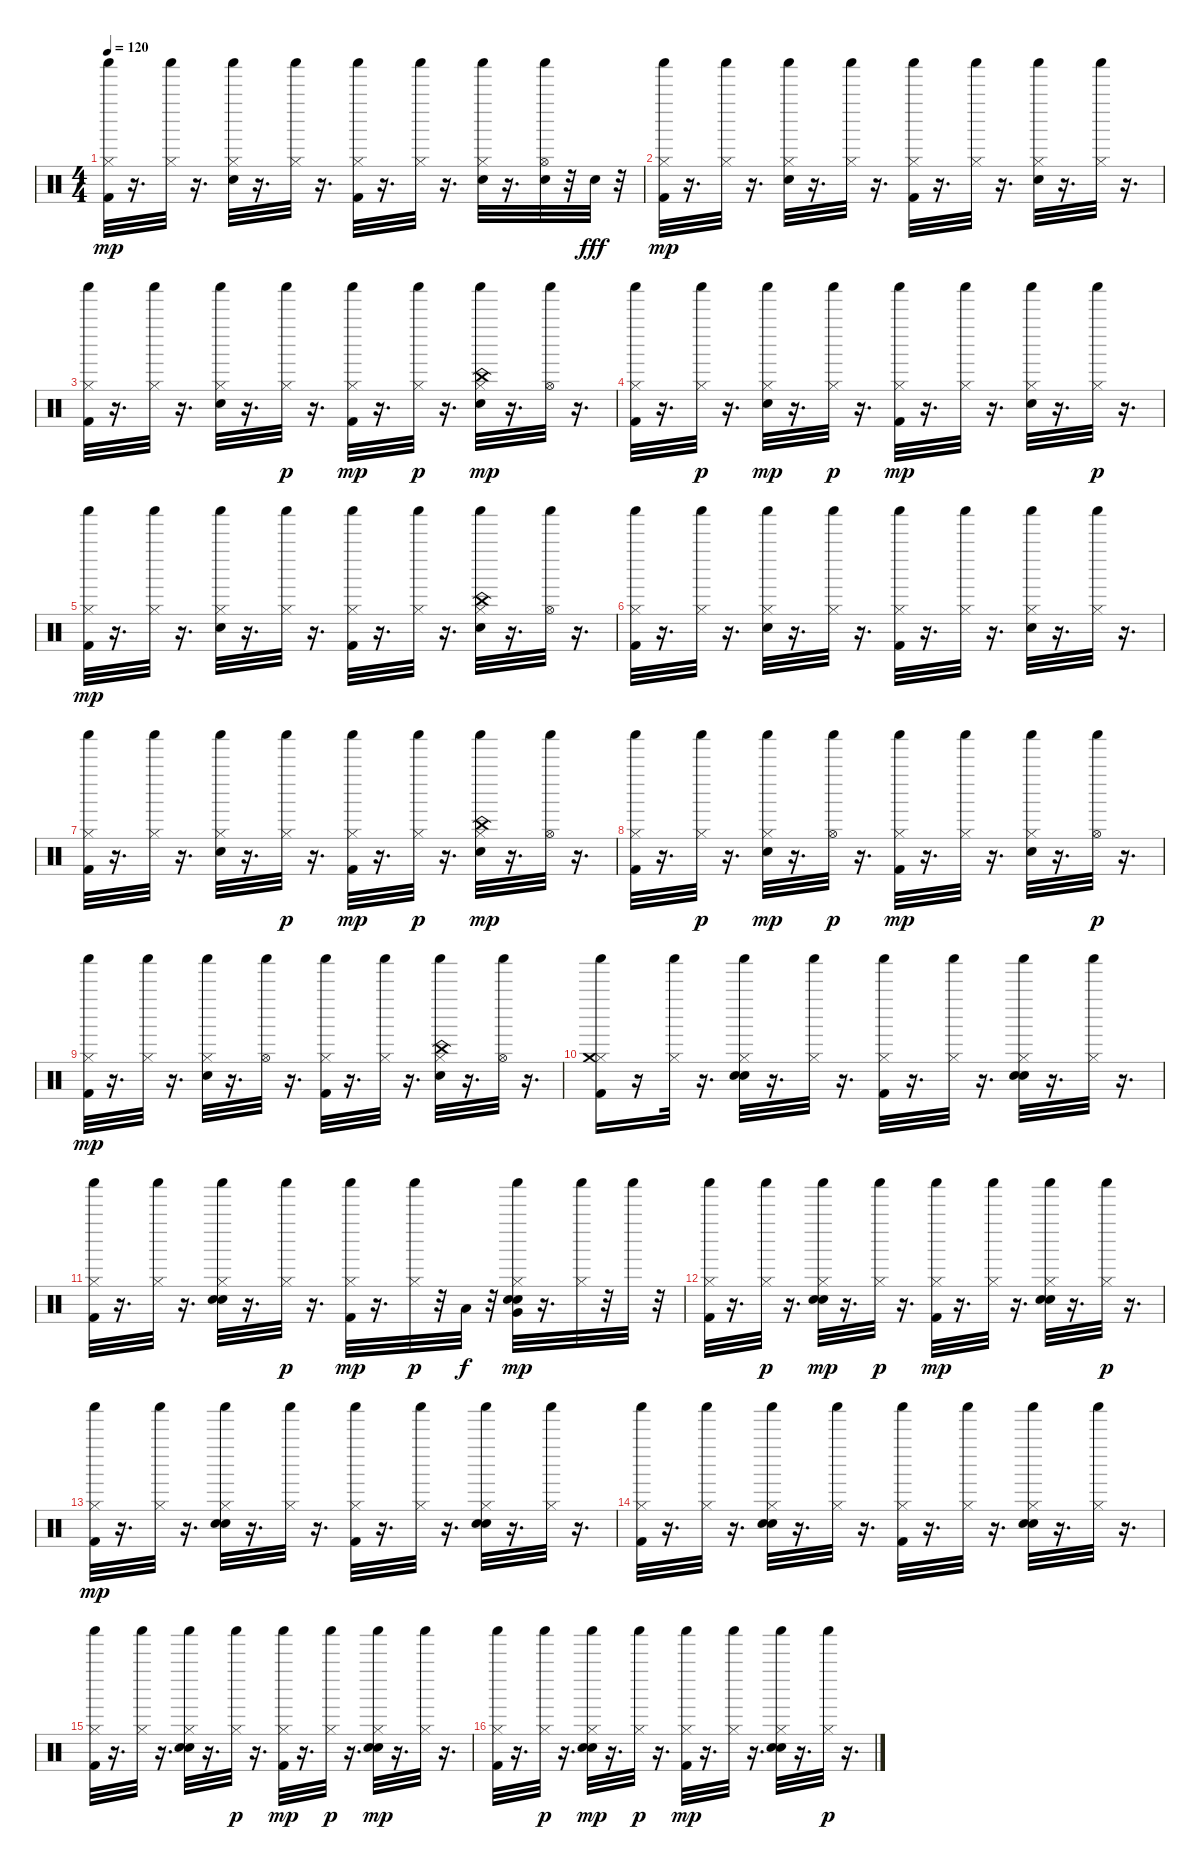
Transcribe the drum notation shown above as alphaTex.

\track "" {instrument percussion}
\staff {score}
\articulation defaults
\ts (4 4)
\tempo 120
\clef neutral
\ks c
("Kick (hit) 2" "Hi-Hat (closed)" "Shaker (hit)").32{dy mp} r.16{d} ("Hi-Hat (closed)" "Shaker (hit)").32 r.16{d} ("Electric Snare (hit)" "Hi-Hat (closed)" "Shaker (hit)").32 r.16{d} ("Hi-Hat (closed)" "Shaker (hit)").32 r.16{d} ("Kick (hit) 2" "Hi-Hat (closed)" "Shaker (hit)").32 r.16{d} ("Hi-Hat (closed)" "Shaker (hit)").32 r.16{d} ("Electric Snare (hit)" "Hi-Hat (closed)" "Shaker (hit)").32 r.16{d} ("Electric Snare (hit)" "Hi-Hat (open)" "Shaker (hit)").32 r.32 "Electric Snare (hit)".32{dy fff} r.32 |
("Kick (hit) 2" "Hi-Hat (closed)" "Shaker (hit)").32{dy mp} r.16{d} ("Hi-Hat (closed)" "Shaker (hit)").32 r.16{d} ("Electric Snare (hit)" "Hi-Hat (closed)" "Shaker (hit)").32 r.16{d} ("Hi-Hat (closed)" "Shaker (hit)").32 r.16{d} ("Kick (hit) 2" "Hi-Hat (closed)" "Shaker (hit)").32 r.16{d} ("Hi-Hat (closed)" "Shaker (hit)").32 r.16{d} ("Electric Snare (hit)" "Hi-Hat (closed)" "Shaker (hit)").32 r.16{d} ("Hi-Hat (closed)" "Shaker (hit)").32 r.16{d} |
("Kick (hit) 2" "Hi-Hat (closed)" "Shaker (hit)").32 r.16{d} ("Hi-Hat (closed)" "Shaker (hit)").32 r.16{d} ("Electric Snare (hit)" "Hi-Hat (closed)" "Shaker (hit)").32 r.16{d} ("Hi-Hat (closed)" "Shaker (hit)").32{dy p} r.16{d} ("Kick (hit) 2" "Hi-Hat (closed)" "Shaker (hit)").32{dy mp} r.16{d} ("Hi-Hat (closed)" "Shaker (hit)").32{dy p} r.16{d} ("Electric Snare (hit)" "Hi-Hat (closed)" "China (hit)" "Shaker (hit)").32{dy mp} r.16{d} ("Hi-Hat (open)" "Shaker (hit)").32 r.16{d} |
("Kick (hit) 2" "Hi-Hat (closed)" "Shaker (hit)").32 r.16{d} ("Hi-Hat (closed)" "Shaker (hit)").32{dy p} r.16{d} ("Electric Snare (hit)" "Hi-Hat (closed)" "Shaker (hit)").32{dy mp} r.16{d} ("Hi-Hat (closed)" "Shaker (hit)").32{dy p} r.16{d} ("Kick (hit) 2" "Hi-Hat (closed)" "Shaker (hit)").32{dy mp} r.16{d} ("Hi-Hat (closed)" "Shaker (hit)").32 r.16{d} ("Electric Snare (hit)" "Hi-Hat (closed)" "Shaker (hit)").32 r.16{d} ("Hi-Hat (closed)" "Shaker (hit)").32{dy p} r.16{d} |
("Kick (hit) 2" "Hi-Hat (closed)" "Shaker (hit)").32{dy mp} r.16{d} ("Hi-Hat (closed)" "Shaker (hit)").32 r.16{d} ("Electric Snare (hit)" "Hi-Hat (closed)" "Shaker (hit)").32 r.16{d} ("Hi-Hat (closed)" "Shaker (hit)").32 r.16{d} ("Kick (hit) 2" "Hi-Hat (closed)" "Shaker (hit)").32 r.16{d} ("Hi-Hat (closed)" "Shaker (hit)").32 r.16{d} ("Electric Snare (hit)" "Hi-Hat (closed)" "China (hit)" "Shaker (hit)").32 r.16{d} ("Hi-Hat (open)" "Shaker (hit)").32 r.16{d} |
("Kick (hit) 2" "Hi-Hat (closed)" "Shaker (hit)").32 r.16{d} ("Hi-Hat (closed)" "Shaker (hit)").32 r.16{d} ("Electric Snare (hit)" "Hi-Hat (closed)" "Shaker (hit)").32 r.16{d} ("Hi-Hat (closed)" "Shaker (hit)").32 r.16{d} ("Kick (hit) 2" "Hi-Hat (closed)" "Shaker (hit)").32 r.16{d} ("Hi-Hat (closed)" "Shaker (hit)").32 r.16{d} ("Electric Snare (hit)" "Hi-Hat (closed)" "Shaker (hit)").32 r.16{d} ("Hi-Hat (closed)" "Shaker (hit)").32 r.16{d} |
("Kick (hit) 2" "Hi-Hat (closed)" "Shaker (hit)").32 r.16{d} ("Hi-Hat (closed)" "Shaker (hit)").32 r.16{d} ("Electric Snare (hit)" "Hi-Hat (closed)" "Shaker (hit)").32 r.16{d} ("Hi-Hat (closed)" "Shaker (hit)").32{dy p} r.16{d} ("Kick (hit) 2" "Hi-Hat (closed)" "Shaker (hit)").32{dy mp} r.16{d} ("Hi-Hat (closed)" "Shaker (hit)").32{dy p} r.16{d} ("Electric Snare (hit)" "Hi-Hat (closed)" "China (hit)" "Shaker (hit)").32{dy mp} r.16{d} ("Hi-Hat (open)" "Shaker (hit)").32 r.16{d} |
("Kick (hit) 2" "Hi-Hat (closed)" "Shaker (hit)").32 r.16{d} ("Hi-Hat (closed)" "Shaker (hit)").32{dy p} r.16{d} ("Electric Snare (hit)" "Hi-Hat (closed)" "Shaker (hit)").32{dy mp} r.16{d} ("Hi-Hat (open)" "Shaker (hit)").32{dy p} r.16{d} ("Kick (hit) 2" "Hi-Hat (closed)" "Shaker (hit)").32{dy mp} r.16{d} ("Hi-Hat (closed)" "Shaker (hit)").32 r.16{d} ("Electric Snare (hit)" "Hi-Hat (closed)" "Shaker (hit)").32 r.16{d} ("Hi-Hat (open)" "Shaker (hit)").32{dy p} r.16{d} |
("Kick (hit) 2" "Hi-Hat (closed)" "Shaker (hit)").32{dy mp} r.16{d} ("Hi-Hat (closed)" "Shaker (hit)").32 r.16{d} ("Electric Snare (hit)" "Hi-Hat (closed)" "Shaker (hit)").32 r.16{d} ("Hi-Hat (open)" "Shaker (hit)").32 r.16{d} ("Kick (hit) 2" "Hi-Hat (closed)" "Shaker (hit)").32 r.16{d} ("Hi-Hat (closed)" "Shaker (hit)").32 r.16{d} ("Electric Snare (hit)" "Hi-Hat (closed)" "China (hit)" "Shaker (hit)").32 r.16{d} ("Hi-Hat (open)" "Shaker (hit)").32 r.16{d} |
("Kick (hit) 2" "Hi-Hat (closed)" "Crash medium (hit)" "Shaker (hit)").16 r.16 ("Hi-Hat (closed)" "Shaker (hit)").32 r.16{d} ("Hand Clap (hit)" "Electric Snare (hit)" "Hi-Hat (closed)" "Shaker (hit)").32 r.16{d} ("Hi-Hat (closed)" "Shaker (hit)").32 r.16{d} ("Kick (hit) 2" "Hi-Hat (closed)" "Shaker (hit)").32 r.16{d} ("Hi-Hat (closed)" "Shaker (hit)").32 r.16{d} ("Hand Clap (hit)" "Electric Snare (hit)" "Hi-Hat (closed)" "Shaker (hit)").32 r.16{d} ("Hi-Hat (closed)" "Shaker (hit)").32 r.16{d} |
("Kick (hit) 2" "Hi-Hat (closed)" "Shaker (hit)").32 r.16{d} ("Hi-Hat (closed)" "Shaker (hit)").32 r.16{d} ("Hand Clap (hit)" "Electric Snare (hit)" "Hi-Hat (closed)" "Shaker (hit)").32 r.16{d} ("Hi-Hat (closed)" "Shaker (hit)").32{dy p} r.16{d} ("Kick (hit) 2" "Hi-Hat (closed)" "Shaker (hit)").32{dy mp} r.16{d} ("Hi-Hat (closed)" "Shaker (hit)").32{dy p} r.32 "Low Tom (hit)".32{dy f} r.32 ("Hand Clap (hit)" "Electric Snare (hit)" "Hi-Hat (closed)" "Very Low Tom (hit)" "Shaker (hit)").32{dy mp} r.16{d} ("Hi-Hat (closed)" "Shaker (hit)").32 r.32 "Shaker (hit)".32 r.32 |
("Kick (hit) 2" "Hi-Hat (closed)" "Shaker (hit)").32 r.16{d} ("Hi-Hat (closed)" "Shaker (hit)").32{dy p} r.16{d} ("Hand Clap (hit)" "Electric Snare (hit)" "Hi-Hat (closed)" "Shaker (hit)").32{dy mp} r.16{d} ("Hi-Hat (closed)" "Shaker (hit)").32{dy p} r.16{d} ("Kick (hit) 2" "Hi-Hat (closed)" "Shaker (hit)").32{dy mp} r.16{d} ("Hi-Hat (closed)" "Shaker (hit)").32 r.16{d} ("Hand Clap (hit)" "Electric Snare (hit)" "Hi-Hat (closed)" "Shaker (hit)").32 r.16{d} ("Hi-Hat (closed)" "Shaker (hit)").32{dy p} r.16{d} |
("Kick (hit) 2" "Hi-Hat (closed)" "Shaker (hit)").32{dy mp} r.16{d} ("Hi-Hat (closed)" "Shaker (hit)").32 r.16{d} ("Hand Clap (hit)" "Electric Snare (hit)" "Hi-Hat (closed)" "Shaker (hit)").32 r.16{d} ("Hi-Hat (closed)" "Shaker (hit)").32 r.16{d} ("Kick (hit) 2" "Hi-Hat (closed)" "Shaker (hit)").32 r.16{d} ("Hi-Hat (closed)" "Shaker (hit)").32 r.16{d} ("Hand Clap (hit)" "Electric Snare (hit)" "Hi-Hat (closed)" "Shaker (hit)").32 r.16{d} ("Hi-Hat (closed)" "Shaker (hit)").32 r.16{d} |
("Kick (hit) 2" "Hi-Hat (closed)" "Shaker (hit)").32 r.16{d} ("Hi-Hat (closed)" "Shaker (hit)").32 r.16{d} ("Hand Clap (hit)" "Electric Snare (hit)" "Hi-Hat (closed)" "Shaker (hit)").32 r.16{d} ("Hi-Hat (closed)" "Shaker (hit)").32 r.16{d} ("Kick (hit) 2" "Hi-Hat (closed)" "Shaker (hit)").32 r.16{d} ("Hi-Hat (closed)" "Shaker (hit)").32 r.16{d} ("Hand Clap (hit)" "Electric Snare (hit)" "Hi-Hat (closed)" "Shaker (hit)").32 r.16{d} ("Hi-Hat (closed)" "Shaker (hit)").32 r.16{d} |
("Kick (hit) 2" "Hi-Hat (closed)" "Shaker (hit)").32 r.16{d} ("Hi-Hat (closed)" "Shaker (hit)").32 r.16{d} ("Hand Clap (hit)" "Electric Snare (hit)" "Hi-Hat (closed)" "Shaker (hit)").32 r.16{d} ("Hi-Hat (closed)" "Shaker (hit)").32{dy p} r.16{d} ("Kick (hit) 2" "Hi-Hat (closed)" "Shaker (hit)").32{dy mp} r.16{d} ("Hi-Hat (closed)" "Shaker (hit)").32{dy p} r.16{d} ("Hand Clap (hit)" "Electric Snare (hit)" "Hi-Hat (closed)" "Shaker (hit)").32{dy mp} r.16{d} ("Hi-Hat (closed)" "Shaker (hit)").32 r.16{d} |
("Kick (hit) 2" "Hi-Hat (closed)" "Shaker (hit)").32 r.16{d} ("Hi-Hat (closed)" "Shaker (hit)").32{dy p} r.16{d} ("Hand Clap (hit)" "Electric Snare (hit)" "Hi-Hat (closed)" "Shaker (hit)").32{dy mp} r.16{d} ("Hi-Hat (closed)" "Shaker (hit)").32{dy p} r.16{d} ("Kick (hit) 2" "Hi-Hat (closed)" "Shaker (hit)").32{dy mp} r.16{d} ("Hi-Hat (closed)" "Shaker (hit)").32 r.16{d} ("Hand Clap (hit)" "Electric Snare (hit)" "Hi-Hat (closed)" "Shaker (hit)").32 r.16{d} ("Hi-Hat (closed)" "Shaker (hit)").32{dy p} r.16{d}
